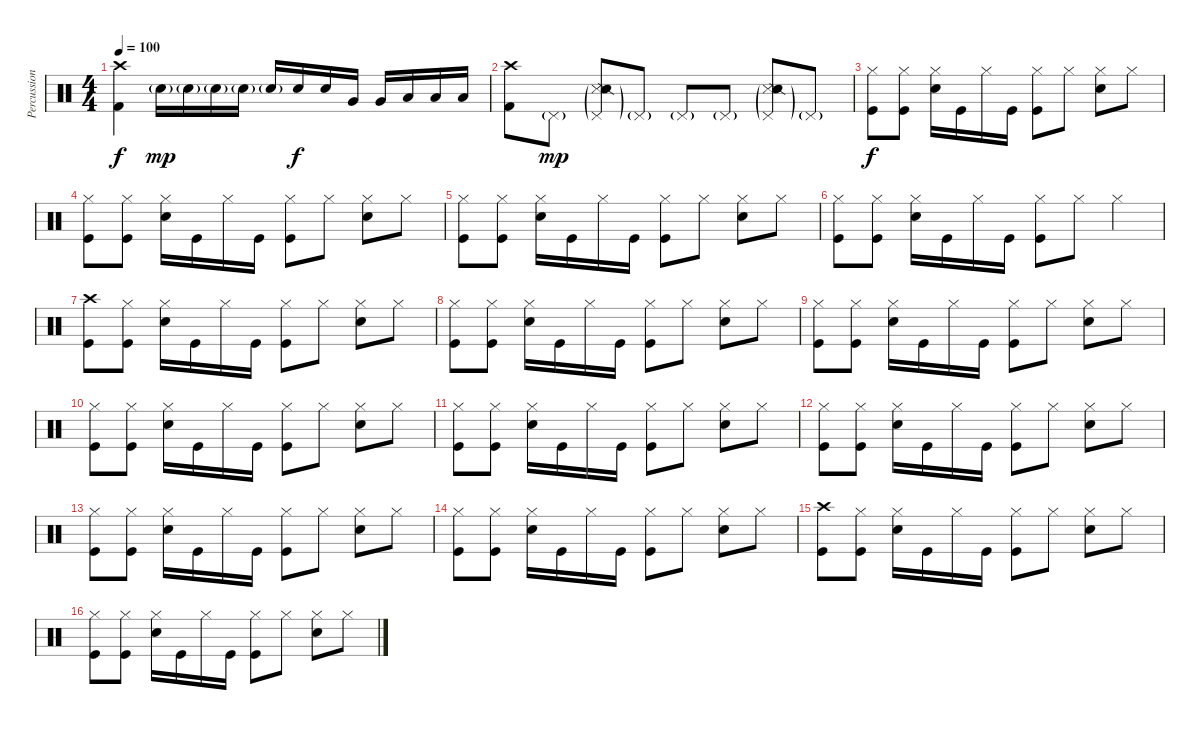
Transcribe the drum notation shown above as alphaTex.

\track ("Percussion" "Percussion") {instrument percussion}
\staff {score}
\articulation defaults
\ts (4 4)
\tempo 100
\clef neutral
\ks c
("Kick (hit) 2" "Crash high (hit)").4{dy f} "Electric Snare (hit)"{g}.16{dy mp} "Electric Snare (hit)"{g}.16 "Electric Snare (hit)"{g}.16 "Electric Snare (hit)"{g}.16 "Electric Snare (hit)"{g}.16 "Electric Snare (hit)".16{dy f} "Electric Snare (hit)".16 "Very Low Tom (hit)".16 "Very Low Tom (hit)".16 "Low Floor Tom (hit)".16 "Low Floor Tom (hit)".16 "Low Floor Tom (hit)".16 |
("Kick (hit) 2" "Crash high (hit)").8 "Pedal Hi-Hat (hit)"{g}.8{dy mp} ("Metronome (hit)"{g} "Snare (side stick) 2"{g} "Pedal Hi-Hat (hit)"{g}).8 "Pedal Hi-Hat (hit)"{g}.8 "Pedal Hi-Hat (hit)"{g}.8 "Pedal Hi-Hat (hit)"{g}.8 ("Metronome (hit)"{g} "Snare (side stick) 2"{g} "Pedal Hi-Hat (hit)"{g}).8 "Pedal Hi-Hat (hit)"{g}.8 |
("Kick (hit)" "Hi-Hat (closed)").8{dy f} ("Kick (hit)" "Hi-Hat (closed)").8 ("Electric Snare (hit)" "Hi-Hat (closed)").16 "Kick (hit)".16 "Hi-Hat (closed)".16 "Kick (hit)".16 ("Kick (hit)" "Hi-Hat (closed)").8 "Hi-Hat (closed)".8 ("Electric Snare (hit)" "Hi-Hat (closed)").8 "Hi-Hat (closed)".8 |
("Kick (hit)" "Hi-Hat (closed)").8 ("Kick (hit)" "Hi-Hat (closed)").8 ("Electric Snare (hit)" "Hi-Hat (closed)").16 "Kick (hit)".16 "Hi-Hat (closed)".16 "Kick (hit)".16 ("Kick (hit)" "Hi-Hat (closed)").8 "Hi-Hat (closed)".8 ("Electric Snare (hit)" "Hi-Hat (closed)").8 "Hi-Hat (closed)".8 |
("Kick (hit)" "Hi-Hat (closed)").8 ("Kick (hit)" "Hi-Hat (closed)").8 ("Electric Snare (hit)" "Hi-Hat (closed)").16 "Kick (hit)".16 "Hi-Hat (closed)".16 "Kick (hit)".16 ("Kick (hit)" "Hi-Hat (closed)").8 "Hi-Hat (closed)".8 ("Electric Snare (hit)" "Hi-Hat (closed)").8 "Hi-Hat (closed)".8 |
("Kick (hit)" "Hi-Hat (closed)").8 ("Kick (hit)" "Hi-Hat (closed)").8 ("Electric Snare (hit)" "Hi-Hat (closed)").16 "Kick (hit)".16 "Hi-Hat (closed)".16 "Kick (hit)".16 ("Kick (hit)" "Hi-Hat (closed)").8 "Hi-Hat (closed)".8 "Hi-Hat (closed)".4 |
("Kick (hit)" "Crash high (hit)").8 ("Kick (hit)" "Hi-Hat (closed)").8 ("Electric Snare (hit)" "Hi-Hat (closed)").16 "Kick (hit)".16 "Hi-Hat (closed)".16 "Kick (hit)".16 ("Kick (hit)" "Hi-Hat (closed)").8 "Hi-Hat (closed)".8 ("Electric Snare (hit)" "Hi-Hat (closed)").8 "Hi-Hat (closed)".8 |
("Kick (hit)" "Hi-Hat (closed)").8 ("Kick (hit)" "Hi-Hat (closed)").8 ("Electric Snare (hit)" "Hi-Hat (closed)").16 "Kick (hit)".16 "Hi-Hat (closed)".16 "Kick (hit)".16 ("Kick (hit)" "Hi-Hat (closed)").8 "Hi-Hat (closed)".8 ("Electric Snare (hit)" "Hi-Hat (closed)").8 "Hi-Hat (closed)".8 |
("Kick (hit)" "Hi-Hat (closed)").8 ("Kick (hit)" "Hi-Hat (closed)").8 ("Electric Snare (hit)" "Hi-Hat (closed)").16 "Kick (hit)".16 "Hi-Hat (closed)".16 "Kick (hit)".16 ("Kick (hit)" "Hi-Hat (closed)").8 "Hi-Hat (closed)".8 ("Electric Snare (hit)" "Hi-Hat (closed)").8 "Hi-Hat (closed)".8 |
("Kick (hit)" "Hi-Hat (closed)").8 ("Kick (hit)" "Hi-Hat (closed)").8 ("Electric Snare (hit)" "Hi-Hat (closed)").16 "Kick (hit)".16 "Hi-Hat (closed)".16 "Kick (hit)".16 ("Kick (hit)" "Hi-Hat (closed)").8 "Hi-Hat (closed)".8 ("Electric Snare (hit)" "Hi-Hat (closed)").8 "Hi-Hat (closed)".8 |
("Kick (hit)" "Hi-Hat (closed)").8 ("Kick (hit)" "Hi-Hat (closed)").8 ("Electric Snare (hit)" "Hi-Hat (closed)").16 "Kick (hit)".16 "Hi-Hat (closed)".16 "Kick (hit)".16 ("Kick (hit)" "Hi-Hat (closed)").8 "Hi-Hat (closed)".8 ("Electric Snare (hit)" "Hi-Hat (closed)").8 "Hi-Hat (closed)".8 |
("Kick (hit)" "Hi-Hat (closed)").8 ("Kick (hit)" "Hi-Hat (closed)").8 ("Electric Snare (hit)" "Hi-Hat (closed)").16 "Kick (hit)".16 "Hi-Hat (closed)".16 "Kick (hit)".16 ("Kick (hit)" "Hi-Hat (closed)").8 "Hi-Hat (closed)".8 ("Electric Snare (hit)" "Hi-Hat (closed)").8 "Hi-Hat (closed)".8 |
("Kick (hit)" "Hi-Hat (closed)").8 ("Kick (hit)" "Hi-Hat (closed)").8 ("Electric Snare (hit)" "Hi-Hat (closed)").16 "Kick (hit)".16 "Hi-Hat (closed)".16 "Kick (hit)".16 ("Kick (hit)" "Hi-Hat (closed)").8 "Hi-Hat (closed)".8 ("Electric Snare (hit)" "Hi-Hat (closed)").8 "Hi-Hat (closed)".8 |
("Kick (hit)" "Hi-Hat (closed)").8 ("Kick (hit)" "Hi-Hat (closed)").8 ("Electric Snare (hit)" "Hi-Hat (closed)").16 "Kick (hit)".16 "Hi-Hat (closed)".16 "Kick (hit)".16 ("Kick (hit)" "Hi-Hat (closed)").8 "Hi-Hat (closed)".8 ("Electric Snare (hit)" "Hi-Hat (closed)").8 "Hi-Hat (closed)".8 |
("Kick (hit)" "Crash high (hit)").8 ("Kick (hit)" "Hi-Hat (closed)").8 ("Electric Snare (hit)" "Hi-Hat (closed)").16 "Kick (hit)".16 "Hi-Hat (closed)".16 "Kick (hit)".16 ("Kick (hit)" "Hi-Hat (closed)").8 "Hi-Hat (closed)".8 ("Electric Snare (hit)" "Hi-Hat (closed)").8 "Hi-Hat (closed)".8 |
("Kick (hit)" "Hi-Hat (closed)").8 ("Kick (hit)" "Hi-Hat (closed)").8 ("Electric Snare (hit)" "Hi-Hat (closed)").16 "Kick (hit)".16 "Hi-Hat (closed)".16 "Kick (hit)".16 ("Kick (hit)" "Hi-Hat (closed)").8 "Hi-Hat (closed)".8 ("Electric Snare (hit)" "Hi-Hat (closed)").8 "Hi-Hat (closed)".8
